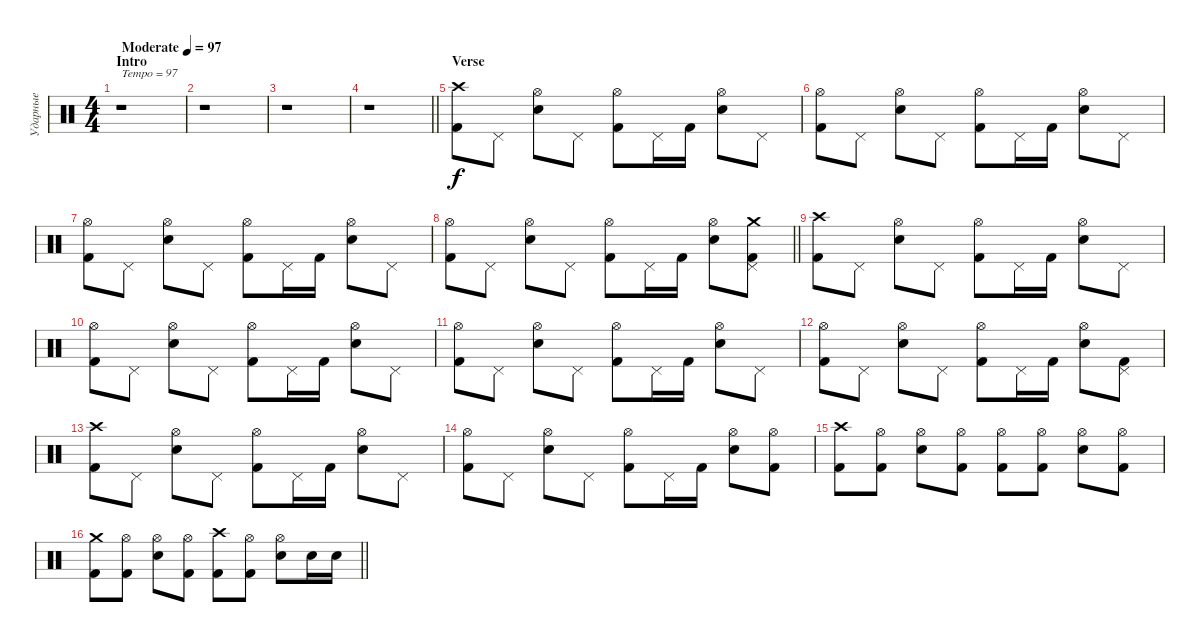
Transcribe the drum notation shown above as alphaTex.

\track ("Ударные" "Ударные") {instrument percussion}
\staff {score}
\articulation defaults
\ts (4 4)
\section ("" "Intro")
\tempo (97 "Moderate")
\clef neutral
\ks c
r.1{txt "Tempo = 97" dy f} |
r.1 |
r.1 |
\barLineRight lightlight
r.1 |
\section ("" "Verse")
("Crash high (hit)" "Kick (hit) 2").8 "Pedal Hi-Hat (hit)".8 ("Hi-Hat (open)" "Electric Snare (hit)").8 "Pedal Hi-Hat (hit)".8 ("Hi-Hat (open)" "Kick (hit) 2").8 "Pedal Hi-Hat (hit)".16 "Kick (hit) 2".16 ("Hi-Hat (open)" "Electric Snare (hit)").8 "Pedal Hi-Hat (hit)".8 |
("Hi-Hat (open)" "Kick (hit) 2").8 "Pedal Hi-Hat (hit)".8 ("Hi-Hat (open)" "Electric Snare (hit)").8 "Pedal Hi-Hat (hit)".8 ("Hi-Hat (open)" "Kick (hit) 2").8 "Pedal Hi-Hat (hit)".16 "Kick (hit) 2".16 ("Hi-Hat (open)" "Electric Snare (hit)").8 "Pedal Hi-Hat (hit)".8 |
("Hi-Hat (open)" "Kick (hit) 2").8 "Pedal Hi-Hat (hit)".8 ("Hi-Hat (open)" "Electric Snare (hit)").8 "Pedal Hi-Hat (hit)".8 ("Hi-Hat (open)" "Kick (hit) 2").8 "Pedal Hi-Hat (hit)".16 "Kick (hit) 2".16 ("Hi-Hat (open)" "Electric Snare (hit)").8 "Pedal Hi-Hat (hit)".8 |
\barLineRight lightlight
("Hi-Hat (open)" "Kick (hit) 2").8 "Pedal Hi-Hat (hit)".8 ("Hi-Hat (open)" "Electric Snare (hit)").8 "Pedal Hi-Hat (hit)".8 ("Hi-Hat (open)" "Kick (hit) 2").8 "Pedal Hi-Hat (hit)".16 "Kick (hit) 2".16 ("Hi-Hat (open)" "Electric Snare (hit)").8 ("Crash medium (hit)" "Pedal Hi-Hat (hit)" "Kick (hit) 2").8 |
("Crash high (hit)" "Kick (hit) 2").8 "Pedal Hi-Hat (hit)".8 ("Hi-Hat (open)" "Electric Snare (hit)").8 "Pedal Hi-Hat (hit)".8 ("Hi-Hat (open)" "Kick (hit) 2").8 "Pedal Hi-Hat (hit)".16 "Kick (hit) 2".16 ("Hi-Hat (open)" "Electric Snare (hit)").8 "Pedal Hi-Hat (hit)".8 |
("Hi-Hat (open)" "Kick (hit) 2").8 "Pedal Hi-Hat (hit)".8 ("Hi-Hat (open)" "Electric Snare (hit)").8 "Pedal Hi-Hat (hit)".8 ("Hi-Hat (open)" "Kick (hit) 2").8 "Pedal Hi-Hat (hit)".16 "Kick (hit) 2".16 ("Hi-Hat (open)" "Electric Snare (hit)").8 "Pedal Hi-Hat (hit)".8 |
("Hi-Hat (open)" "Kick (hit) 2").8 "Pedal Hi-Hat (hit)".8 ("Hi-Hat (open)" "Electric Snare (hit)").8 "Pedal Hi-Hat (hit)".8 ("Hi-Hat (open)" "Kick (hit) 2").8 "Pedal Hi-Hat (hit)".16 "Kick (hit) 2".16 ("Hi-Hat (open)" "Electric Snare (hit)").8 "Pedal Hi-Hat (hit)".8 |
("Hi-Hat (open)" "Kick (hit) 2").8 "Pedal Hi-Hat (hit)".8 ("Hi-Hat (open)" "Electric Snare (hit)").8 "Pedal Hi-Hat (hit)".8 ("Hi-Hat (open)" "Kick (hit) 2").8 "Pedal Hi-Hat (hit)".16 "Kick (hit) 2".16 ("Hi-Hat (open)" "Electric Snare (hit)").8 ("Pedal Hi-Hat (hit)" "Kick (hit) 2").8 |
("Crash high (hit)" "Kick (hit) 2").8 "Pedal Hi-Hat (hit)".8 ("Hi-Hat (open)" "Electric Snare (hit)").8 "Pedal Hi-Hat (hit)".8 ("Hi-Hat (open)" "Kick (hit) 2").8 "Pedal Hi-Hat (hit)".16 "Kick (hit) 2".16 ("Hi-Hat (open)" "Electric Snare (hit)").8 "Pedal Hi-Hat (hit)".8 |
("Hi-Hat (open)" "Kick (hit) 2").8 "Pedal Hi-Hat (hit)".8 ("Hi-Hat (open)" "Electric Snare (hit)").8 "Pedal Hi-Hat (hit)".8 ("Hi-Hat (open)" "Kick (hit) 2").8 "Pedal Hi-Hat (hit)".16 "Kick (hit) 2".16 ("Hi-Hat (open)" "Electric Snare (hit)").8 ("Hi-Hat (open)" "Kick (hit) 2").8 |
("Crash high (hit)" "Kick (hit) 2").8 ("Hi-Hat (open)" "Kick (hit) 2").8 ("Hi-Hat (open)" "Electric Snare (hit)").8 ("Hi-Hat (open)" "Kick (hit) 2").8 ("Hi-Hat (open)" "Kick (hit) 2").8 ("Hi-Hat (open)" "Kick (hit) 2").8 ("Hi-Hat (open)" "Electric Snare (hit)").8 ("Hi-Hat (open)" "Kick (hit) 2").8 |
\barLineRight lightlight
("Crash medium (hit)" "Kick (hit) 2").8 ("Hi-Hat (open)" "Kick (hit) 2").8 ("Hi-Hat (open)" "Electric Snare (hit)").8 ("Hi-Hat (open)" "Kick (hit) 2").8 ("Crash high (hit)" "Kick (hit) 2").8 ("Hi-Hat (open)" "Kick (hit) 2").8 ("Hi-Hat (open)" "Electric Snare (hit)").8 "Electric Snare (hit)".16 "Electric Snare (hit)".16
